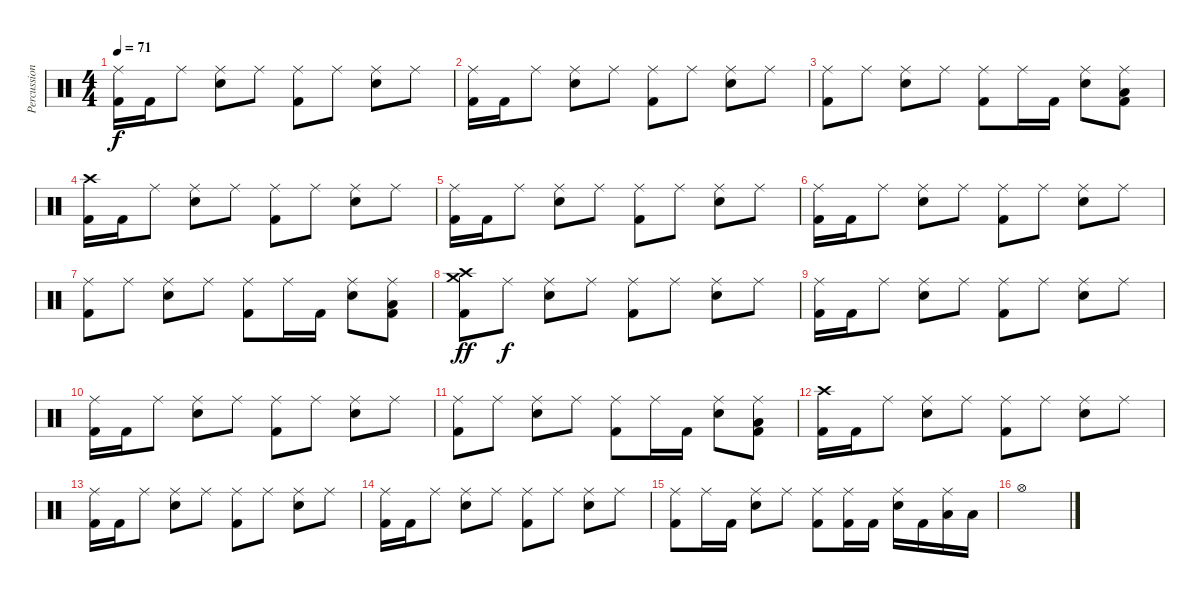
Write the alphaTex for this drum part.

\track ("Percussion" "Percussion") {instrument percussion}
\staff {score}
\articulation defaults
\ts (4 4)
\tempo 71
\clef neutral
\ks c
("Ride (middle)" "Kick (hit) 2").16{dy f} "Kick (hit) 2".16 "Ride (middle)".8 ("Ride (middle)" "Electric Snare (hit)").8 "Ride (middle)".8 ("Ride (middle)" "Kick (hit) 2").8 "Ride (middle)".8 ("Ride (middle)" "Electric Snare (hit)").8 "Ride (middle)".8 |
("Ride (middle)" "Kick (hit) 2").16 "Kick (hit) 2".16 "Ride (middle)".8 ("Ride (middle)" "Electric Snare (hit)").8 "Ride (middle)".8 ("Ride (middle)" "Kick (hit) 2").8 "Ride (middle)".8 ("Ride (middle)" "Electric Snare (hit)").8 "Ride (middle)".8 |
("Ride (middle)" "Kick (hit) 2").8 "Ride (middle)".8 ("Ride (middle)" "Electric Snare (hit)").8 "Ride (middle)".8 ("Ride (middle)" "Kick (hit) 2").8 "Ride (middle)".16 "Kick (hit) 2".16 ("Ride (middle)" "Electric Snare (hit)").8 ("Ride (middle)" "Low Tom (hit)" "Kick (hit) 2").8 |
("Crash high (hit)" "Kick (hit) 2").16 "Kick (hit) 2".16 "Ride (middle)".8 ("Ride (middle)" "Electric Snare (hit)").8 "Ride (middle)".8 ("Ride (middle)" "Kick (hit) 2").8 "Ride (middle)".8 ("Ride (middle)" "Electric Snare (hit)").8 "Ride (middle)".8 |
("Ride (middle)" "Kick (hit) 2").16 "Kick (hit) 2".16 "Ride (middle)".8 ("Ride (middle)" "Electric Snare (hit)").8 "Ride (middle)".8 ("Ride (middle)" "Kick (hit) 2").8 "Ride (middle)".8 ("Ride (middle)" "Electric Snare (hit)").8 "Ride (middle)".8 |
("Ride (middle)" "Kick (hit) 2").16 "Kick (hit) 2".16 "Ride (middle)".8 ("Ride (middle)" "Electric Snare (hit)").8 "Ride (middle)".8 ("Ride (middle)" "Kick (hit) 2").8 "Ride (middle)".8 ("Ride (middle)" "Electric Snare (hit)").8 "Ride (middle)".8 |
("Ride (middle)" "Kick (hit) 2").8 "Ride (middle)".8 ("Ride (middle)" "Electric Snare (hit)").8 "Ride (middle)".8 ("Ride (middle)" "Kick (hit) 2").8 "Ride (middle)".16 "Kick (hit) 2".16 ("Ride (middle)" "Electric Snare (hit)").8 ("Ride (middle)" "Low Tom (hit)" "Kick (hit) 2").8 |
("Crash medium (hit)" "Crash high (hit)" "Kick (hit) 2").8{dy ff} "Ride (middle)".8{dy f} ("Ride (middle)" "Electric Snare (hit)").8 "Ride (middle)".8 ("Ride (middle)" "Kick (hit) 2").8 "Ride (middle)".8 ("Ride (middle)" "Electric Snare (hit)").8 "Ride (middle)".8 |
("Ride (middle)" "Kick (hit) 2").16 "Kick (hit) 2".16 "Ride (middle)".8 ("Ride (middle)" "Electric Snare (hit)").8 "Ride (middle)".8 ("Ride (middle)" "Kick (hit) 2").8 "Ride (middle)".8 ("Ride (middle)" "Electric Snare (hit)").8 "Ride (middle)".8 |
("Ride (middle)" "Kick (hit) 2").16 "Kick (hit) 2".16 "Ride (middle)".8 ("Ride (middle)" "Electric Snare (hit)").8 "Ride (middle)".8 ("Ride (middle)" "Kick (hit) 2").8 "Ride (middle)".8 ("Ride (middle)" "Electric Snare (hit)").8 "Ride (middle)".8 |
("Ride (middle)" "Kick (hit) 2").8 "Ride (middle)".8 ("Ride (middle)" "Electric Snare (hit)").8 "Ride (middle)".8 ("Ride (middle)" "Kick (hit) 2").8 "Ride (middle)".16 "Kick (hit) 2".16 ("Ride (middle)" "Electric Snare (hit)").8 ("Ride (middle)" "Low Tom (hit)" "Kick (hit) 2").8 |
("Crash high (hit)" "Kick (hit) 2").16 "Kick (hit) 2".16 "Ride (middle)".8 ("Ride (middle)" "Electric Snare (hit)").8 "Ride (middle)".8 ("Ride (middle)" "Kick (hit) 2").8 "Ride (middle)".8 ("Ride (middle)" "Electric Snare (hit)").8 "Ride (middle)".8 |
("Ride (middle)" "Kick (hit) 2").16 "Kick (hit) 2".16 "Ride (middle)".8 ("Ride (middle)" "Electric Snare (hit)").8 "Ride (middle)".8 ("Ride (middle)" "Kick (hit) 2").8 "Ride (middle)".8 ("Ride (middle)" "Electric Snare (hit)").8 "Ride (middle)".8 |
("Ride (middle)" "Kick (hit) 2").16 "Kick (hit) 2".16 "Ride (middle)".8 ("Ride (middle)" "Electric Snare (hit)").8 "Ride (middle)".8 ("Ride (middle)" "Kick (hit) 2").8 "Ride (middle)".8 ("Ride (middle)" "Electric Snare (hit)").8 "Ride (middle)".8 |
("Ride (middle)" "Kick (hit) 2").8 "Ride (middle)".16 "Kick (hit) 2".16 ("Ride (middle)" "Electric Snare (hit)").8 "Ride (middle)".8 ("Ride (middle)" "Kick (hit) 2").8 ("Ride (middle)" "Kick (hit) 2").16 "Kick (hit) 2".16 ("Ride (middle)" "Electric Snare (hit)").16 "Kick (hit) 2".16 ("Ride (middle)" "Low Tom (hit)").16 "Low Tom (hit)".16 |
"Hi-Hat (open)".1
